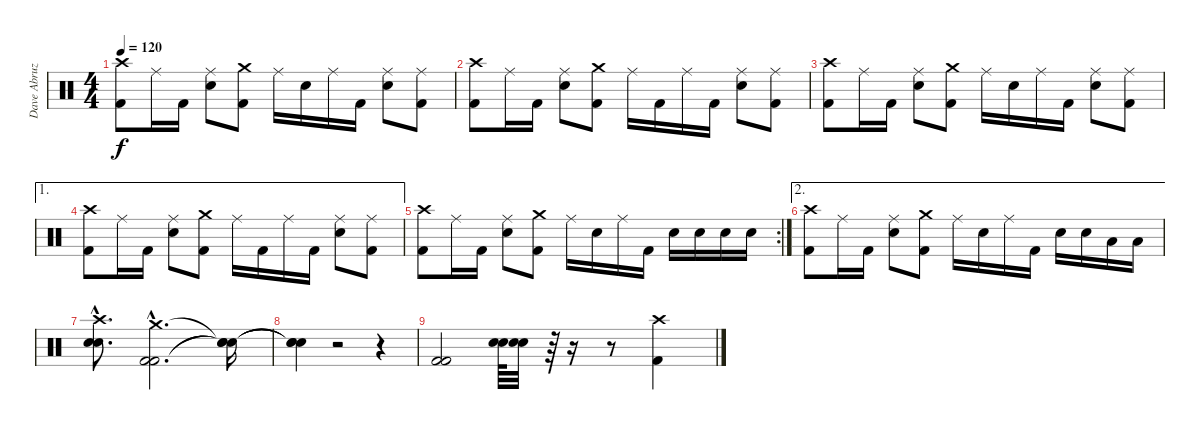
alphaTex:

\track ("Dave Abruzzesse" "Dave Abruz") {instrument percussion}
\staff {score}
\articulation defaults
\ts (4 4)
\tempo 120
\clef neutral
\ks c
("Crash high (hit)" "Kick (hit) 2").8{dy f} "Ride (middle)".16 "Kick (hit) 2".16 ("Ride (middle)" "Electric Snare (hit)").8 ("Crash medium (hit)" "Kick (hit) 2").8 "Ride (middle)".16 "Electric Snare (hit)".16 "Ride (middle)".16 "Kick (hit) 2".16 ("Ride (middle)" "Electric Snare (hit)").8 ("Ride (middle)" "Kick (hit) 2").8 |
("Crash high (hit)" "Kick (hit) 2").8 "Ride (middle)".16 "Kick (hit) 2".16 ("Ride (middle)" "Electric Snare (hit)").8 ("Crash medium (hit)" "Kick (hit) 2").8 "Ride (middle)".16 "Kick (hit) 2".16 "Ride (middle)".16 "Kick (hit) 2".16 ("Ride (middle)" "Electric Snare (hit)").8 ("Ride (middle)" "Kick (hit) 2").8 |
("Crash high (hit)" "Kick (hit) 2").8 "Ride (middle)".16 "Kick (hit) 2".16 ("Ride (middle)" "Electric Snare (hit)").8 ("Crash medium (hit)" "Kick (hit) 2").8 "Ride (middle)".16 "Electric Snare (hit)".16 "Ride (middle)".16 "Kick (hit) 2".16 ("Ride (middle)" "Electric Snare (hit)").8 ("Ride (middle)" "Kick (hit) 2").8 |
\ae 1
("Crash high (hit)" "Kick (hit) 2").8 "Ride (middle)".16 "Kick (hit) 2".16 ("Ride (middle)" "Electric Snare (hit)").8 ("Crash medium (hit)" "Kick (hit) 2").8 "Ride (middle)".16 "Kick (hit) 2".16 "Ride (middle)".16 "Kick (hit) 2".16 ("Ride (middle)" "Electric Snare (hit)").8 ("Ride (middle)" "Kick (hit) 2").8 |
\rc 2
("Crash high (hit)" "Kick (hit) 2").8 "Ride (middle)".16 "Kick (hit) 2".16 ("Ride (middle)" "Electric Snare (hit)").8 ("Crash medium (hit)" "Kick (hit) 2").8 "Ride (middle)".16 "Electric Snare (hit)".16 "Ride (middle)".16 "Kick (hit) 2".16 "Electric Snare (hit)".16 "Electric Snare (hit)".16 "Electric Snare (hit)".16 "Electric Snare (hit)".16 |
\ae 2
("Crash high (hit)" "Kick (hit) 2").8 "Ride (middle)".16 "Kick (hit) 2".16 ("Ride (middle)" "Electric Snare (hit)").8 ("Crash medium (hit)" "Kick (hit) 2").8 "Ride (middle)".16 "Electric Snare (hit)".16 "Ride (middle)".16 "Kick (hit) 2".16 "Electric Snare (hit)".16 "Electric Snare (hit)".16 "Low Tom (hit)".16 "Low Tom (hit)".16 |
("Crash high (hit)"{hac} "Snare (hit) 2"{hac} "Snare (hit) 2"{hac}).8{d} ("Crash medium (hit)"{hac} "Kick (hit) 2"{hac} "Kick (hit) 2"{hac}).2{d} ("Snare (hit)"{t} "Snare (hit)"{t} "Snare (hit)"{t}).16 |
("Snare (hit)"{t} "Snare (hit)"{t} "Snare (hit)"{t}).4 r.2 r.4 |
("Kick (hit) 2" "Kick (hit) 2").2 ("Snare (hit) 2" "Snare (hit) 2").64 ("Snare (hit) 2" "Snare (hit) 2").32 r.64 r.16 r.8 ("Crash high (hit)" "Kick (hit) 2").4
